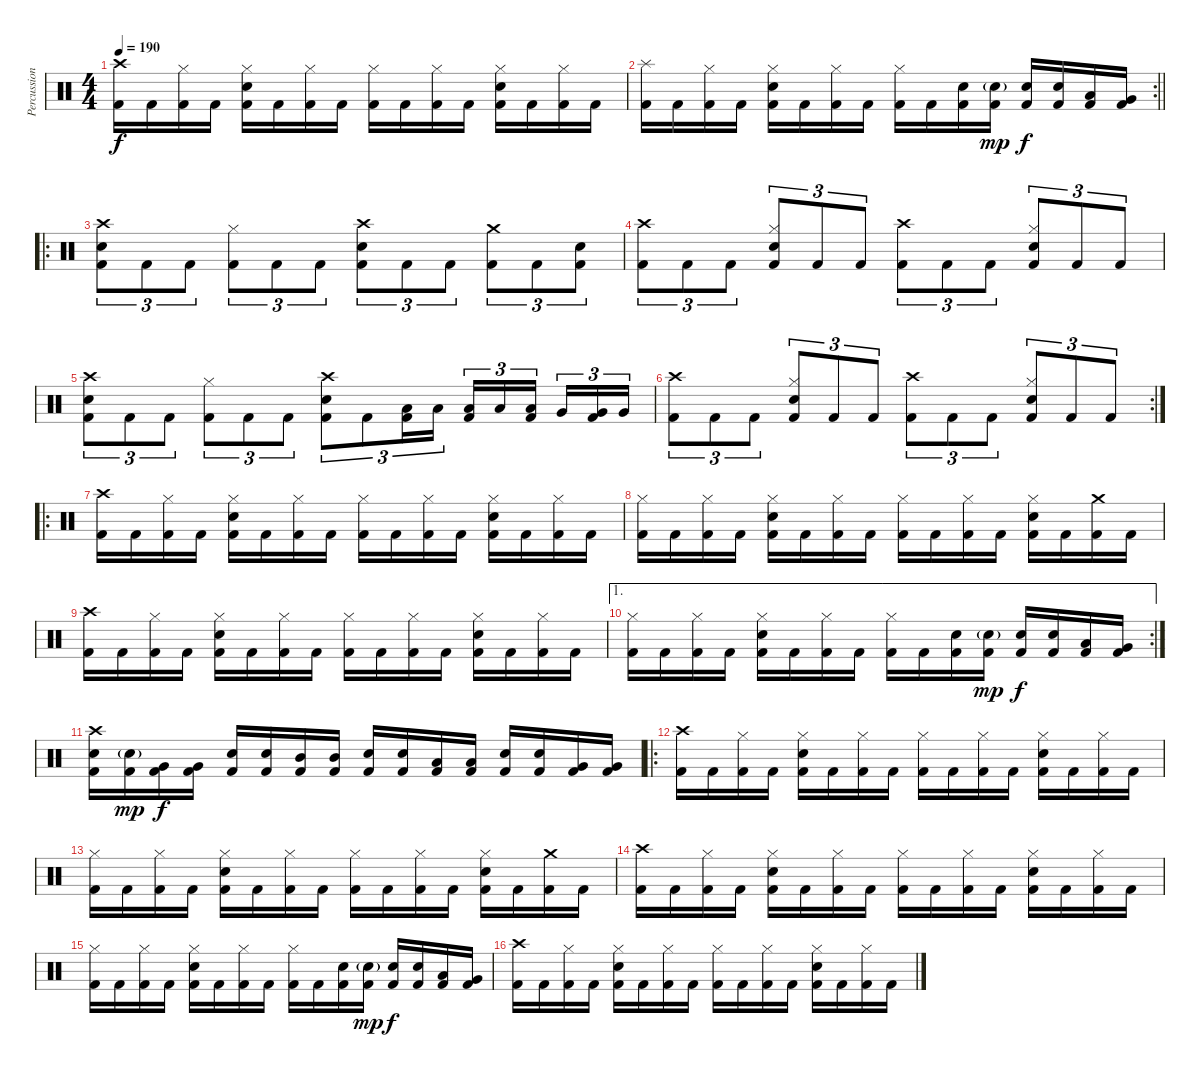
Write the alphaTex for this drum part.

\track ("Percussion" "Percussion") {instrument percussion}
\staff {score}
\articulation defaults
\ts (4 4)
\tempo 190
\clef neutral
\ks c
("Crash high (hit)" "Kick (hit) 2").16{dy f} "Kick (hit) 2".16 ("Hi-Hat (closed)" "Kick (hit) 2").16 "Kick (hit) 2".16 ("Hi-Hat (closed)" "Snare (hit) 2" "Kick (hit) 2").16 "Kick (hit) 2".16 ("Hi-Hat (closed)" "Kick (hit) 2").16 "Kick (hit) 2".16 ("Hi-Hat (closed)" "Kick (hit) 2").16 "Kick (hit) 2".16 ("Hi-Hat (closed)" "Kick (hit) 2").16 "Kick (hit) 2".16 ("Hi-Hat (closed)" "Snare (hit) 2" "Kick (hit) 2").16 "Kick (hit) 2".16 ("Hi-Hat (closed)" "Kick (hit) 2").16 "Kick (hit) 2".16 |
\rc 2
\barLineRight lightlight
("Splash (hit)" "Kick (hit) 2").16 "Kick (hit) 2".16 ("Hi-Hat (closed)" "Kick (hit) 2").16 "Kick (hit) 2".16 ("Hi-Hat (closed)" "Snare (hit) 2" "Kick (hit) 2").16 "Kick (hit) 2".16 ("Hi-Hat (closed)" "Kick (hit) 2").16 "Kick (hit) 2".16 ("Hi-Hat (closed)" "Kick (hit) 2").16 "Kick (hit) 2".16 ("Snare (hit) 2" "Kick (hit) 2").16 ("Snare (hit) 2"{g} "Kick (hit) 2").16{dy mp} ("Snare (hit) 2" "Kick (hit) 2").16{dy f} ("Snare (hit) 2" "Kick (hit) 2").16 ("Low Tom (hit)" "Kick (hit) 2").16 ("Very Low Tom (hit)" "Kick (hit) 2").16 |
\ro
\section ("" "")
("Crash high (hit)" "Snare (hit) 2" "Kick (hit) 2").8{tu (3 2)} "Kick (hit) 2".8{tu (3 2)} "Kick (hit) 2".8{tu (3 2)} ("Hi-Hat (closed)" "Kick (hit) 2").8{tu (3 2)} "Kick (hit) 2".8{tu (3 2)} "Kick (hit) 2".8{tu (3 2)} ("Crash high (hit)" "Snare (hit) 2" "Kick (hit) 2").8{tu (3 2)} "Kick (hit) 2".8{tu (3 2)} "Kick (hit) 2".8{tu (3 2)} ("Crash medium (hit)" "Kick (hit) 2").8{tu (3 2)} "Kick (hit) 2".8{tu (3 2)} ("Snare (hit) 2" "Kick (hit) 2").8{tu (3 2)} |
("Crash high (hit)" "Kick (hit) 2").8{tu (3 2)} "Kick (hit) 2".8{tu (3 2)} "Kick (hit) 2".8{tu (3 2)} ("Hi-Hat (closed)" "Snare (hit) 2" "Kick (hit) 2").8{tu (3 2)} "Kick (hit) 2".8{tu (3 2)} "Kick (hit) 2".8{tu (3 2)} ("Crash high (hit)" "Kick (hit) 2").8{tu (3 2)} "Kick (hit) 2".8{tu (3 2)} "Kick (hit) 2".8{tu (3 2)} ("Hi-Hat (closed)" "Snare (hit) 2" "Kick (hit) 2").8{tu (3 2)} "Kick (hit) 2".8{tu (3 2)} "Kick (hit) 2".8{tu (3 2)} |
("Crash high (hit)" "Snare (hit) 2" "Kick (hit) 2").8{tu (3 2)} "Kick (hit) 2".8{tu (3 2)} "Kick (hit) 2".8{tu (3 2)} ("Hi-Hat (closed)" "Kick (hit) 2").8{tu (3 2)} "Kick (hit) 2".8{tu (3 2)} "Kick (hit) 2".8{tu (3 2)} ("Crash high (hit)" "Snare (hit) 2" "Kick (hit) 2").8{tu (3 2)} "Kick (hit) 2".8{tu (3 2)} ("Low Tom (hit)" "Kick (hit) 2").16{tu (3 2)} "Low Tom (hit)".16{tu (3 2)} ("Low Tom (hit)" "Kick (hit) 2").16{tu (3 2)} "Low Tom (hit)".16{tu (3 2)} ("Low Tom (hit)" "Kick (hit) 2").16{tu (3 2)} "Very Low Tom (hit)".16{tu (3 2)} ("Very Low Tom (hit)" "Kick (hit) 2").16{tu (3 2)} "Very Low Tom (hit)".16{tu (3 2)} |
\rc 2
("Crash high (hit)" "Kick (hit) 2").8{tu (3 2)} "Kick (hit) 2".8{tu (3 2)} "Kick (hit) 2".8{tu (3 2)} ("Hi-Hat (closed)" "Snare (hit) 2" "Kick (hit) 2").8{tu (3 2)} "Kick (hit) 2".8{tu (3 2)} "Kick (hit) 2".8{tu (3 2)} ("Crash high (hit)" "Kick (hit) 2").8{tu (3 2)} "Kick (hit) 2".8{tu (3 2)} "Kick (hit) 2".8{tu (3 2)} ("Hi-Hat (closed)" "Snare (hit) 2" "Kick (hit) 2").8{tu (3 2)} "Kick (hit) 2".8{tu (3 2)} "Kick (hit) 2".8{tu (3 2)} |
\ro
("Crash high (hit)" "Kick (hit) 2").16 "Kick (hit) 2".16 ("Hi-Hat (closed)" "Kick (hit) 2").16 "Kick (hit) 2".16 ("Hi-Hat (closed)" "Snare (hit) 2" "Kick (hit) 2").16 "Kick (hit) 2".16 ("Hi-Hat (closed)" "Kick (hit) 2").16 "Kick (hit) 2".16 ("Hi-Hat (closed)" "Kick (hit) 2").16 "Kick (hit) 2".16 ("Hi-Hat (closed)" "Kick (hit) 2").16 "Kick (hit) 2".16 ("Hi-Hat (closed)" "Snare (hit) 2" "Kick (hit) 2").16 "Kick (hit) 2".16 ("Hi-Hat (closed)" "Kick (hit) 2").16 "Kick (hit) 2".16 |
("Hi-Hat (closed)" "Kick (hit) 2").16 "Kick (hit) 2".16 ("Hi-Hat (closed)" "Kick (hit) 2").16 "Kick (hit) 2".16 ("Hi-Hat (closed)" "Snare (hit) 2" "Kick (hit) 2").16 "Kick (hit) 2".16 ("Hi-Hat (closed)" "Kick (hit) 2").16 "Kick (hit) 2".16 ("Hi-Hat (closed)" "Kick (hit) 2").16 "Kick (hit) 2".16 ("Hi-Hat (closed)" "Kick (hit) 2").16 "Kick (hit) 2".16 ("Hi-Hat (closed)" "Snare (hit) 2" "Kick (hit) 2").16 "Kick (hit) 2".16 ("Crash medium (hit)" "Kick (hit) 2").16 "Kick (hit) 2".16 |
("Crash high (hit)" "Kick (hit) 2").16 "Kick (hit) 2".16 ("Hi-Hat (closed)" "Kick (hit) 2").16 "Kick (hit) 2".16 ("Hi-Hat (closed)" "Snare (hit) 2" "Kick (hit) 2").16 "Kick (hit) 2".16 ("Hi-Hat (closed)" "Kick (hit) 2").16 "Kick (hit) 2".16 ("Hi-Hat (closed)" "Kick (hit) 2").16 "Kick (hit) 2".16 ("Hi-Hat (closed)" "Kick (hit) 2").16 "Kick (hit) 2".16 ("Hi-Hat (closed)" "Snare (hit) 2" "Kick (hit) 2").16 "Kick (hit) 2".16 ("Hi-Hat (closed)" "Kick (hit) 2").16 "Kick (hit) 2".16 |
\ae 1
\rc 2
("Hi-Hat (closed)" "Kick (hit) 2").16 "Kick (hit) 2".16 ("Hi-Hat (closed)" "Kick (hit) 2").16 "Kick (hit) 2".16 ("Hi-Hat (closed)" "Snare (hit) 2" "Kick (hit) 2").16 "Kick (hit) 2".16 ("Hi-Hat (closed)" "Kick (hit) 2").16 "Kick (hit) 2".16 ("Hi-Hat (closed)" "Kick (hit) 2").16 "Kick (hit) 2".16 ("Snare (hit) 2" "Kick (hit) 2").16 ("Snare (hit) 2"{g} "Kick (hit) 2").16{dy mp} ("Snare (hit) 2" "Kick (hit) 2").16{dy f} ("Snare (hit) 2" "Kick (hit) 2").16 ("Low Tom (hit)" "Kick (hit) 2").16 ("Very Low Tom (hit)" "Kick (hit) 2").16 |
("Crash high (hit)" "Snare (hit) 2" "Kick (hit) 2").16 ("Snare (hit) 2"{g} "Kick (hit) 2").16{dy mp} ("Very Low Tom (hit)" "Kick (hit) 2").16{dy f} ("Very Low Tom (hit)" "Kick (hit) 2").16 ("Snare (hit) 2" "Kick (hit) 2").16 ("Snare (hit) 2" "Kick (hit) 2").16 ("Mid Tom (hit)" "Kick (hit) 2").16 ("Mid Tom (hit)" "Kick (hit) 2").16 ("Snare (hit) 2" "Kick (hit) 2").16 ("Snare (hit) 2" "Kick (hit) 2").16 ("Low Tom (hit)" "Kick (hit) 2").16 ("Low Tom (hit)" "Kick (hit) 2").16 ("Snare (hit) 2" "Kick (hit) 2").16 ("Snare (hit) 2" "Kick (hit) 2").16 ("Very Low Tom (hit)" "Kick (hit) 2").16 ("Very Low Tom (hit)" "Kick (hit) 2").16 |
\ro
("Crash high (hit)" "Kick (hit) 2").16 "Kick (hit) 2".16 ("Hi-Hat (closed)" "Kick (hit) 2").16 "Kick (hit) 2".16 ("Hi-Hat (closed)" "Snare (hit) 2" "Kick (hit) 2").16 "Kick (hit) 2".16 ("Hi-Hat (closed)" "Kick (hit) 2").16 "Kick (hit) 2".16 ("Hi-Hat (closed)" "Kick (hit) 2").16 "Kick (hit) 2".16 ("Hi-Hat (closed)" "Kick (hit) 2").16 "Kick (hit) 2".16 ("Hi-Hat (closed)" "Snare (hit) 2" "Kick (hit) 2").16 "Kick (hit) 2".16 ("Hi-Hat (closed)" "Kick (hit) 2").16 "Kick (hit) 2".16 |
("Hi-Hat (closed)" "Kick (hit) 2").16 "Kick (hit) 2".16 ("Hi-Hat (closed)" "Kick (hit) 2").16 "Kick (hit) 2".16 ("Hi-Hat (closed)" "Snare (hit) 2" "Kick (hit) 2").16 "Kick (hit) 2".16 ("Hi-Hat (closed)" "Kick (hit) 2").16 "Kick (hit) 2".16 ("Hi-Hat (closed)" "Kick (hit) 2").16 "Kick (hit) 2".16 ("Hi-Hat (closed)" "Kick (hit) 2").16 "Kick (hit) 2".16 ("Hi-Hat (closed)" "Snare (hit) 2" "Kick (hit) 2").16 "Kick (hit) 2".16 ("Crash medium (hit)" "Kick (hit) 2").16 "Kick (hit) 2".16 |
("Crash high (hit)" "Kick (hit) 2").16 "Kick (hit) 2".16 ("Hi-Hat (closed)" "Kick (hit) 2").16 "Kick (hit) 2".16 ("Hi-Hat (closed)" "Snare (hit) 2" "Kick (hit) 2").16 "Kick (hit) 2".16 ("Hi-Hat (closed)" "Kick (hit) 2").16 "Kick (hit) 2".16 ("Hi-Hat (closed)" "Kick (hit) 2").16 "Kick (hit) 2".16 ("Hi-Hat (closed)" "Kick (hit) 2").16 "Kick (hit) 2".16 ("Hi-Hat (closed)" "Snare (hit) 2" "Kick (hit) 2").16 "Kick (hit) 2".16 ("Hi-Hat (closed)" "Kick (hit) 2").16 "Kick (hit) 2".16 |
("Hi-Hat (closed)" "Kick (hit) 2").16 "Kick (hit) 2".16 ("Hi-Hat (closed)" "Kick (hit) 2").16 "Kick (hit) 2".16 ("Hi-Hat (closed)" "Snare (hit) 2" "Kick (hit) 2").16 "Kick (hit) 2".16 ("Hi-Hat (closed)" "Kick (hit) 2").16 "Kick (hit) 2".16 ("Hi-Hat (closed)" "Kick (hit) 2").16 "Kick (hit) 2".16 ("Snare (hit) 2" "Kick (hit) 2").16 ("Snare (hit) 2"{g} "Kick (hit) 2").16{dy mp} ("Snare (hit) 2" "Kick (hit) 2").16{dy f} ("Snare (hit) 2" "Kick (hit) 2").16 ("Low Tom (hit)" "Kick (hit) 2").16 ("Very Low Tom (hit)" "Kick (hit) 2").16 |
("Crash high (hit)" "Kick (hit) 2").16 "Kick (hit) 2".16 ("Hi-Hat (closed)" "Kick (hit) 2").16 "Kick (hit) 2".16 ("Hi-Hat (closed)" "Snare (hit) 2" "Kick (hit) 2").16 "Kick (hit) 2".16 ("Hi-Hat (closed)" "Kick (hit) 2").16 "Kick (hit) 2".16 ("Hi-Hat (closed)" "Kick (hit) 2").16 "Kick (hit) 2".16 ("Hi-Hat (closed)" "Kick (hit) 2").16 "Kick (hit) 2".16 ("Hi-Hat (closed)" "Snare (hit) 2" "Kick (hit) 2").16 "Kick (hit) 2".16 ("Hi-Hat (closed)" "Kick (hit) 2").16 "Kick (hit) 2".16
